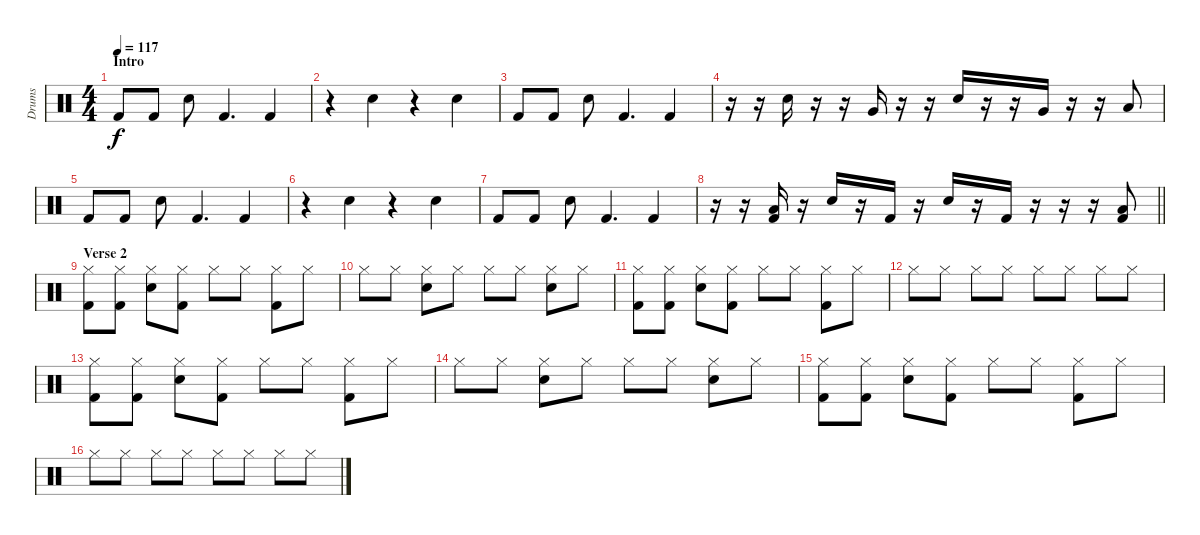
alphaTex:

\track ("Drums" "Drums") {instrument percussion}
\staff {score}
\articulation defaults
\ts (4 4)
\section ("" "Intro")
\tempo 117
\clef neutral
\ks c "Kick (hit) 2".8{dy f} "Kick (hit) 2".8 "Snare (hit) 2".8 "Kick (hit) 2".4{d} "Kick (hit) 2".4
|
r.4 "Snare (hit) 2".4 r.4 "Snare (hit) 2".4 |
"Kick (hit) 2".8 "Kick (hit) 2".8 "Snare (hit) 2".8 "Kick (hit) 2".4{d} "Kick (hit) 2".4 |
r.16 r.16 "Snare (hit) 2".16 r.16 r.16 "Very Low Tom (hit)".16 r.16 r.16 "Snare (hit) 2".16 r.16 r.16 "Very Low Tom (hit)".16 r.16 r.16 "Low Floor Tom (hit)".8 |
"Kick (hit) 2".8 "Kick (hit) 2".8 "Snare (hit) 2".8 "Kick (hit) 2".4{d} "Kick (hit) 2".4 |
r.4 "Snare (hit) 2".4 r.4 "Snare (hit) 2".4 |
"Kick (hit) 2".8 "Kick (hit) 2".8 "Snare (hit) 2".8 "Kick (hit) 2".4{d} "Kick (hit) 2".4 |
\barLineRight lightlight
r.16 r.16 ("Low Floor Tom (hit)" "Kick (hit) 2").16 r.16 "Snare (hit) 2".16 r.16 "Kick (hit) 2".16 r.16 "Snare (hit) 2".16 r.16 "Kick (hit) 2".16 r.16 r.16 r.16 ("Low Floor Tom (hit)" "Kick (hit) 2").8 |
\section ("" "Verse 2")
("Hi-Hat (closed)" "Kick (hit) 2").8 ("Hi-Hat (closed)" "Kick (hit) 2").8 ("Hi-Hat (closed)" "Snare (hit) 2").8 ("Hi-Hat (closed)" "Kick (hit) 2").8 "Hi-Hat (closed)".8 "Hi-Hat (closed)".8 ("Hi-Hat (closed)" "Kick (hit) 2").8 "Hi-Hat (closed)".8 |
"Hi-Hat (closed)".8 "Hi-Hat (closed)".8 ("Hi-Hat (closed)" "Snare (hit) 2").8 "Hi-Hat (closed)".8 "Hi-Hat (closed)".8 "Hi-Hat (closed)".8 ("Hi-Hat (closed)" "Snare (hit) 2").8 "Hi-Hat (closed)".8 |
("Hi-Hat (closed)" "Kick (hit) 2").8 ("Hi-Hat (closed)" "Kick (hit) 2").8 ("Hi-Hat (closed)" "Snare (hit) 2").8 ("Hi-Hat (closed)" "Kick (hit) 2").8 "Hi-Hat (closed)".8 "Hi-Hat (closed)".8 ("Hi-Hat (closed)" "Kick (hit) 2").8 "Hi-Hat (closed)".8 |
"Hi-Hat (closed)".8 "Hi-Hat (closed)".8 "Hi-Hat (closed)".8 "Hi-Hat (closed)".8 "Hi-Hat (closed)".8 "Hi-Hat (closed)".8 "Hi-Hat (closed)".8 "Hi-Hat (closed)".8 |
("Hi-Hat (closed)" "Kick (hit) 2").8 ("Hi-Hat (closed)" "Kick (hit) 2").8 ("Hi-Hat (closed)" "Snare (hit) 2").8 ("Hi-Hat (closed)" "Kick (hit) 2").8 "Hi-Hat (closed)".8 "Hi-Hat (closed)".8 ("Hi-Hat (closed)" "Kick (hit) 2").8 "Hi-Hat (closed)".8 |
"Hi-Hat (closed)".8 "Hi-Hat (closed)".8 ("Hi-Hat (closed)" "Snare (hit) 2").8 "Hi-Hat (closed)".8 "Hi-Hat (closed)".8 "Hi-Hat (closed)".8 ("Hi-Hat (closed)" "Snare (hit) 2").8 "Hi-Hat (closed)".8 |
("Hi-Hat (closed)" "Kick (hit) 2").8 ("Hi-Hat (closed)" "Kick (hit) 2").8 ("Hi-Hat (closed)" "Snare (hit) 2").8 ("Hi-Hat (closed)" "Kick (hit) 2").8 "Hi-Hat (closed)".8 "Hi-Hat (closed)".8 ("Hi-Hat (closed)" "Kick (hit) 2").8 "Hi-Hat (closed)".8 |
"Hi-Hat (closed)".8 "Hi-Hat (closed)".8 "Hi-Hat (closed)".8 "Hi-Hat (closed)".8 "Hi-Hat (closed)".8 "Hi-Hat (closed)".8 "Hi-Hat (closed)".8 "Hi-Hat (closed)".8
